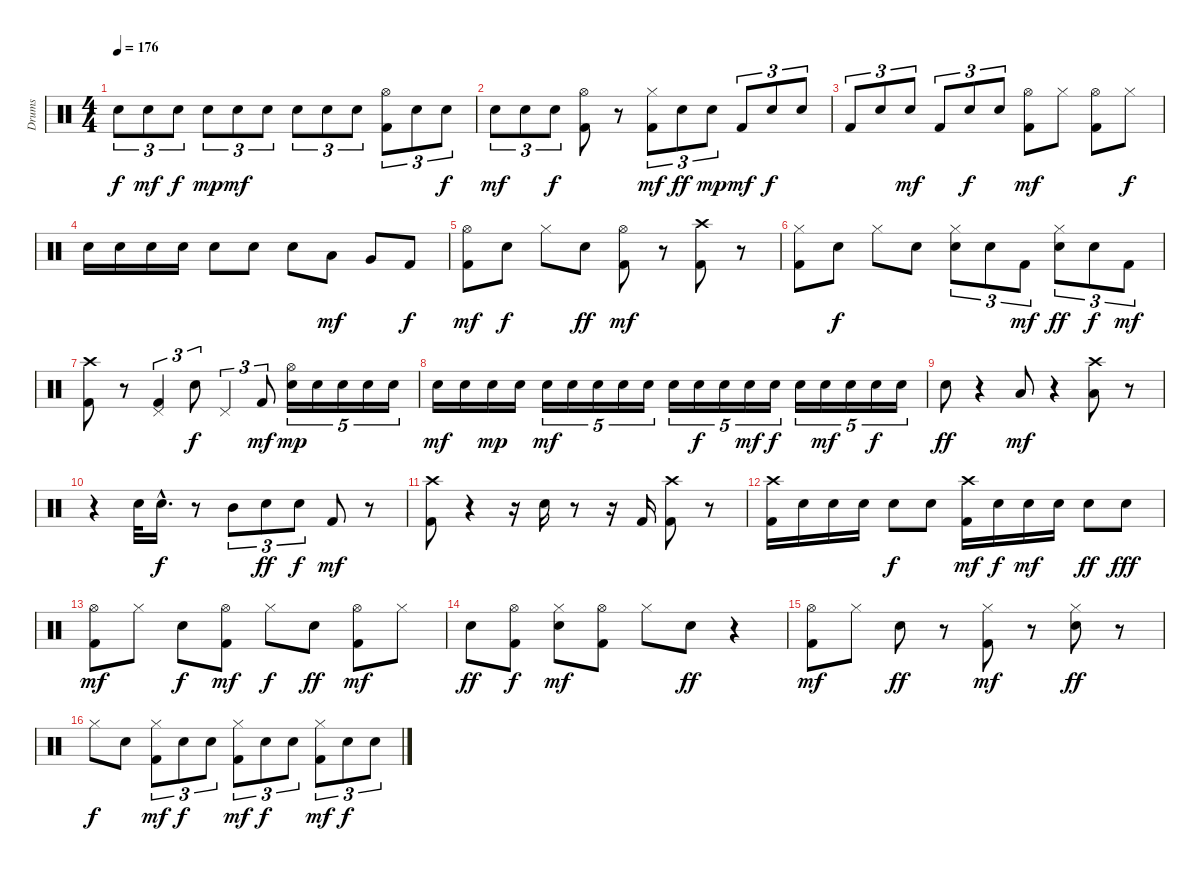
\track ("Drums" "Drums") {instrument percussion}
\staff {score}
\articulation defaults
\ts (4 4)
\tempo 176
\clef neutral
\ks c "Snare (hit) 2".8{tu (3 2) dy f} "Snare (hit) 2".8{tu (3 2) dy mf} "Snare (hit) 2".8{tu (3 2) dy f} "Snare (hit) 2".8{tu (3 2) dy mp} "Snare (hit) 2".8{tu (3 2) dy mf} "Snare (hit) 2".8{tu (3 2)} "Snare (hit) 2".8{tu (3 2)} "Snare (hit) 2".8{tu (3 2)} "Snare (hit) 2".8{tu (3 2)}
("Hi-Hat (open)" "Kick (hit) 2").8{tu (3 2)} "Snare (hit) 2".8{tu (3 2)} "Snare (hit) 2".8{tu (3 2) dy f} |
"Snare (hit) 2".8{tu (3 2) dy mf} "Snare (hit) 2".8{tu (3 2)} "Snare (hit) 2".8{tu (3 2) dy f} ("Hi-Hat (open)" "Kick (hit) 2").8 r.8 ("Hi-Hat (closed)" "Kick (hit) 2").8{tu (3 2) dy mf} "Snare (hit) 2".8{tu (3 2) dy ff} "Snare (hit) 2".8{tu (3 2) dy mp} "Kick (hit) 2".8{tu (3 2) dy mf} "Snare (hit) 2".8{tu (3 2) dy f} "Snare (hit) 2".8{tu (3 2)} |
"Kick (hit) 2".8{tu (3 2)} "Snare (hit) 2".8{tu (3 2)} "Snare (hit) 2".8{tu (3 2) dy mf} "Kick (hit) 2".8{tu (3 2)} "Snare (hit) 2".8{tu (3 2) dy f} "Snare (hit) 2".8{tu (3 2)} ("Hi-Hat (open)" "Kick (hit) 2").8{dy mf} "Hi-Hat (closed)".8 ("Hi-Hat (open)" "Kick (hit) 2").8 "Hi-Hat (closed)".8{dy f} |
"Snare (hit) 2".16 "Snare (hit) 2".16 "Snare (hit) 2".16 "Snare (hit) 2".16 "Snare (hit) 2".8 "Snare (hit) 2".8 "Snare (hit) 2".8 "Low Tom (hit)".8{dy mf} "Very Low Tom (hit)".8 "Kick (hit) 2".8{dy f} |
("Hi-Hat (open)" "Kick (hit) 2").8{dy mf} "Snare (hit) 2".8{dy f} "Hi-Hat (closed)".8 "Snare (hit) 2".8{dy ff} ("Hi-Hat (open)" "Kick (hit) 2").8{dy mf} r.8 ("Kick (hit) 2" "Crash high (hit)").8 r.8 |
("Hi-Hat (closed)" "Kick (hit) 2").8 "Snare (hit) 2".8{dy f} "Hi-Hat (closed)".8 "Snare (hit) 2".8 ("Hi-Hat (closed)" "Snare (hit) 2").8{tu (3 2)} "Snare (hit) 2".8{tu (3 2)} "Kick (hit) 2".8{tu (3 2) dy mf} ("Hi-Hat (closed)" "Snare (hit) 2").8{tu (3 2) dy ff} "Snare (hit) 2".8{tu (3 2) dy f} "Kick (hit) 2".8{tu (3 2) dy mf} |
("Crash high (hit)" "Kick (hit) 2").8 r.8 ("Pedal Hi-Hat (hit)" "Kick (hit) 2").4{tu (3 2)} "Hand Clap (hit)".8{tu (3 2) dy f} "Pedal Hi-Hat (hit)".4{tu (3 2)} "Kick (hit) 2".8{tu (3 2) dy mf} ("Hi-Hat (open)" "Snare (hit) 2").16{tu (5 4) dy mp} "Snare (hit) 2".16{tu (5 4)} "Snare (hit) 2".16{tu (5 4)} "Snare (hit) 2".16{tu (5 4)} "Snare (hit) 2".16{tu (5 4)} |
"Snare (hit) 2".16{dy mf} "Snare (hit) 2".16 "Snare (hit) 2".16{dy mp} "Snare (hit) 2".16 "Snare (hit) 2".16{tu (5 4) dy mf} "Snare (hit) 2".16{tu (5 4)} "Snare (hit) 2".16{tu (5 4)} "Snare (hit) 2".16{tu (5 4)} "Snare (hit) 2".16{tu (5 4)} "Snare (hit) 2".16{tu (5 4)} "Snare (hit) 2".16{tu (5 4) dy f} "Snare (hit) 2".16{tu (5 4)} "Snare (hit) 2".16{tu (5 4) dy mf} "Snare (hit) 2".16{tu (5 4) dy f} "Snare (hit) 2".16{tu (5 4)} "Snare (hit) 2".16{tu (5 4) dy mf} "Snare (hit) 2".16{tu (5 4)} "Snare (hit) 2".16{tu (5 4) dy f} "Snare (hit) 2".16{tu (5 4)} |
"Snare (hit) 2".8{dy ff} r.4 "Low Tom (hit)".8{dy mf} r.4 ("Crash high (hit)" "Low Tom (hit)").8 r.8 |
r.4 "Snare (hit) 2".32 "Snare (hit) 2"{hac}.16{d dy f} r.8 "Mid Tom (hit)".8{tu (3 2)} "Snare (hit) 2".8{tu (3 2) dy ff} "Snare (hit) 2".8{tu (3 2) dy f} "Kick (hit) 2".8{dy mf} r.8 |
("Crash high (hit)" "Kick (hit) 2").8 r.4 r.16 "Snare (hit) 2".16 r.8 r.16 "Kick (hit) 2".16 ("Crash high (hit)" "Kick (hit) 2").8 r.8 |
("Crash high (hit)" "Kick (hit) 2").16 "Snare (hit) 2".16 "Snare (hit) 2".16 "Snare (hit) 2".16 "Snare (hit) 2".8{dy f} "Snare (hit) 2".8 ("Crash high (hit)" "Kick (hit) 2").16{dy mf} "Snare (hit) 2".16{dy f} "Snare (hit) 2".16{dy mf} "Snare (hit) 2".16 "Snare (hit) 2".8{dy ff} "Snare (hit) 2".8{dy fff} |
("Hi-Hat (open)" "Kick (hit) 2").8{dy mf} "Hi-Hat (closed)".8 "Snare (hit) 2".8{dy f} ("Hi-Hat (open)" "Kick (hit) 2").8{dy mf} "Hi-Hat (closed)".8{dy f} "Snare (hit) 2".8{dy ff} ("Hi-Hat (open)" "Kick (hit) 2").8{dy mf} "Hi-Hat (closed)".8 |
"Snare (hit) 2".8{dy ff} ("Hi-Hat (open)" "Kick (hit) 2").8{dy f} ("Hi-Hat (closed)" "Snare (hit) 2").8{dy mf} ("Hi-Hat (open)" "Kick (hit) 2").8 "Hi-Hat (closed)".8 "Snare (hit) 2".8{dy ff} r.4 |
("Hi-Hat (open)" "Kick (hit) 2").8{dy mf} "Hi-Hat (closed)".8 "Snare (hit) 2".8{dy ff} r.8 ("Hi-Hat (closed)" "Kick (hit) 2").8{dy mf} r.8 ("Hi-Hat (closed)" "Snare (hit) 2").8{dy ff} r.8 |
"Hi-Hat (closed)".8{dy f} "Snare (hit) 2".8 ("Hi-Hat (closed)" "Kick (hit) 2").8{tu (3 2) dy mf} "Snare (hit) 2".8{tu (3 2) dy f} "Snare (hit) 2".8{tu (3 2)} ("Hi-Hat (closed)" "Kick (hit) 2").8{tu (3 2) dy mf} "Snare (hit) 2".8{tu (3 2) dy f} "Snare (hit) 2".8{tu (3 2) balance 15} ("Hi-Hat (closed)" "Kick (hit) 2").8{tu (3 2) dy mf balance 15} "Snare (hit) 2".8{tu (3 2) dy f balance 14} "Snare (hit) 2".8{tu (3 2) balance 13}
